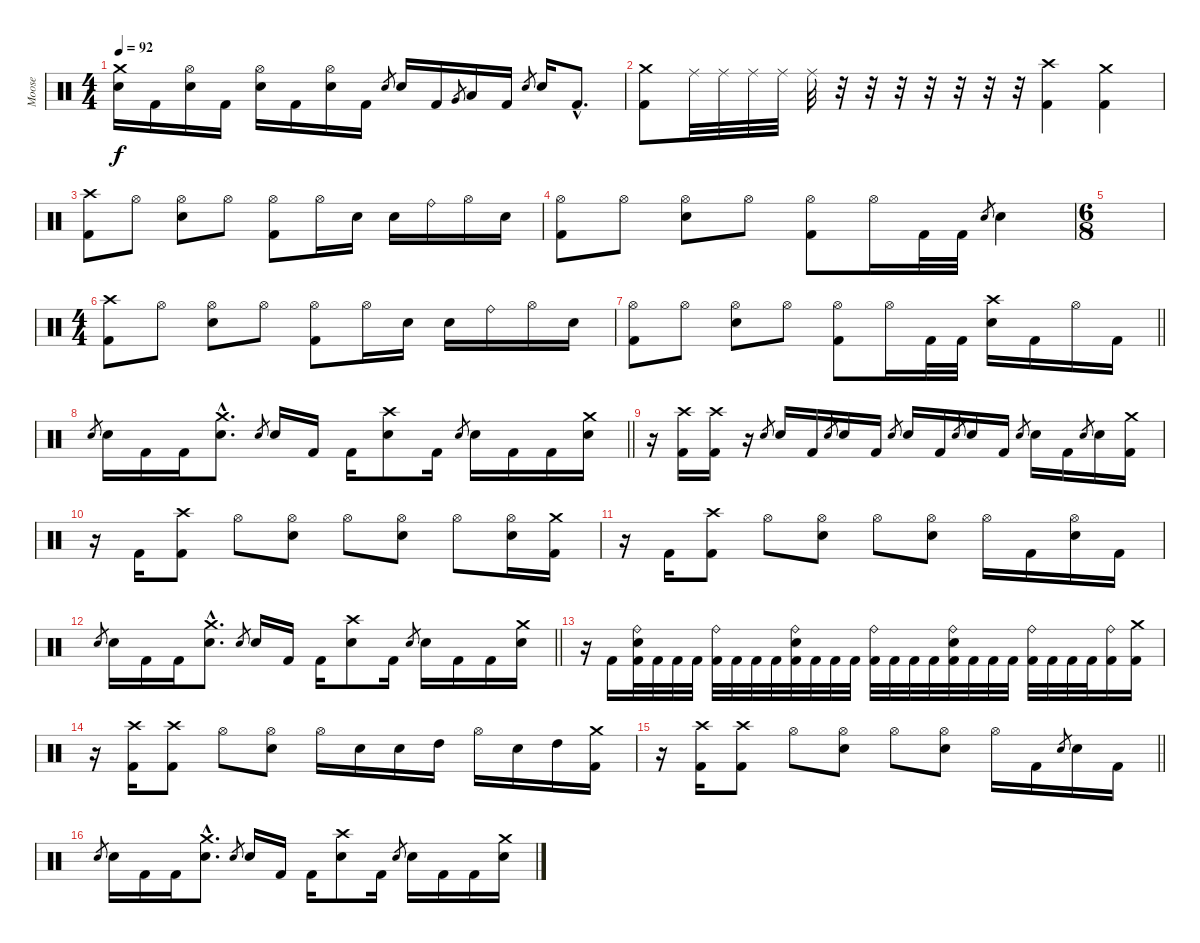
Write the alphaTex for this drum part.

\track ("Moose" "Moose") {instrument percussion}
\staff {score}
\articulation defaults
\ts (4 4)
\tempo 92
\clef neutral
\ks c
("Crash medium (hit)" "Electric Snare (hit)").16{dy f} "Kick (hit) 2".16 ("Hi-Hat (open)" "Electric Snare (hit)").16 "Kick (hit) 2".16 ("Hi-Hat (open)" "Electric Snare (hit)").16 "Kick (hit) 2".16 ("Hi-Hat (open)" "Electric Snare (hit)").16 "Kick (hit) 2".16 "Electric Snare (hit)".8{gr} "Electric Snare (hit)".16 "Kick (hit) 2".16 "Very Low Tom (hit)".8{gr} "Low Floor Tom (hit)".16 "Kick (hit) 2".16 "Electric Snare (hit)".8{gr} "Electric Snare (hit)".16 "Kick (hit) 2"{hac}.8{d} |
("Crash medium (hit)" "Kick (hit) 2").8 "Ride (middle)".32 "Ride (middle)".32 "Ride (middle)".32 "Ride (middle)".32 "Ride (middle)".32 r.32 r.32 r.32 r.32 r.32 r.32 r.32 ("Crash high (hit)" "Kick (hit) 2").4 ("Crash medium (hit)" "Kick (hit) 2").4 |
("Crash high (hit)" "Kick (hit) 2").8 "Hi-Hat (open)".8 ("Hi-Hat (open)" "Electric Snare (hit)").8 "Hi-Hat (open)".8 ("Hi-Hat (open)" "Kick (hit) 2").8 "Hi-Hat (open)".16 "Electric Snare (hit)".16 "Electric Snare (hit)".16 "Ride (bell)".16 "Hi-Hat (open)".16 "Electric Snare (hit)".16 |
("Hi-Hat (open)" "Kick (hit) 2").8 "Hi-Hat (open)".8 ("Hi-Hat (open)" "Electric Snare (hit)").8 "Hi-Hat (open)".8 ("Hi-Hat (open)" "Kick (hit) 2").8 "Hi-Hat (open)".16 "Kick (hit) 2".32 "Kick (hit) 2".32 "Electric Snare (hit)".8{gr} "Electric Snare (hit)".4 |
\ts (6 8)
|
\ts (4 4)
("Crash high (hit)" "Kick (hit) 2").8 "Hi-Hat (open)".8 ("Hi-Hat (open)" "Electric Snare (hit)").8 "Hi-Hat (open)".8 ("Hi-Hat (open)" "Kick (hit) 2").8 "Hi-Hat (open)".16 "Electric Snare (hit)".16 "Electric Snare (hit)".16 "Ride (bell)".16 "Hi-Hat (open)".16 "Electric Snare (hit)".16 |
\barLineRight lightlight
("Hi-Hat (open)" "Kick (hit) 2").8 "Hi-Hat (open)".8 ("Hi-Hat (open)" "Electric Snare (hit)").8 "Hi-Hat (open)".8 ("Hi-Hat (open)" "Kick (hit) 2").8 "Hi-Hat (open)".16 "Kick (hit) 2".32 "Kick (hit) 2".32 ("Crash high (hit)" "Electric Snare (hit)").16 "Kick (hit) 2".16 "Hi-Hat (open)".16 "Kick (hit) 2".16 |
\barLineRight lightlight "Electric Snare (hit)".8{gr} "Electric Snare (hit)".16 "Kick (hit) 2".16 "Kick (hit) 2".16
("Crash medium (hit)"{hac} "Electric Snare (hit)"{hac}).8{d} "Electric Snare (hit)".8{gr} "Electric Snare (hit)".16 "Kick (hit) 2".16 "Kick (hit) 2".16 ("Crash high (hit)" "Electric Snare (hit)").8 "Kick (hit) 2".16 "Electric Snare (hit)".8{gr} "Electric Snare (hit)".16 "Kick (hit) 2".16 "Kick (hit) 2".16 ("Crash medium (hit)" "Electric Snare (hit)").16 |
r.16 ("Crash high (hit)" "Kick (hit) 2").16 ("Crash high (hit)" "Kick (hit) 2").16 r.16 "Electric Snare (hit)".8{gr} "Electric Snare (hit)".16 "Kick (hit) 2".16 "Electric Snare (hit)".8{gr} "Electric Snare (hit)".16 "Kick (hit) 2".16 "Electric Snare (hit)".8{gr} "Electric Snare (hit)".16 "Kick (hit) 2".16 "Electric Snare (hit)".8{gr} "Electric Snare (hit)".16 "Kick (hit) 2".16 "Electric Snare (hit)".8{gr} "Electric Snare (hit)".16 "Kick (hit) 2".16 "Electric Snare (hit)".8{gr} "Electric Snare (hit)".16 ("Crash medium (hit)" "Kick (hit) 2").16 |
r.16 "Kick (hit) 2".16 ("Crash high (hit)" "Kick (hit) 2").8 "Hi-Hat (open)".8 ("Hi-Hat (open)" "Electric Snare (hit)").8 "Hi-Hat (open)".8 ("Hi-Hat (open)" "Electric Snare (hit)").8 "Hi-Hat (open)".8 ("Hi-Hat (open)" "Electric Snare (hit)").16 ("Crash medium (hit)" "Kick (hit) 2").16 |
r.16 "Kick (hit) 2".16 ("Crash high (hit)" "Kick (hit) 2").8 "Hi-Hat (open)".8 ("Hi-Hat (open)" "Electric Snare (hit)").8 "Hi-Hat (open)".8 ("Hi-Hat (open)" "Electric Snare (hit)").8 "Hi-Hat (open)".16 "Kick (hit) 2".16 ("Hi-Hat (open)" "Electric Snare (hit)").16 "Kick (hit) 2".16 |
\barLineRight lightlight "Electric Snare (hit)".8{gr} "Electric Snare (hit)".16 "Kick (hit) 2".16 "Kick (hit) 2".16
("Crash medium (hit)"{hac} "Electric Snare (hit)"{hac}).8{d} "Electric Snare (hit)".8{gr} "Electric Snare (hit)".16 "Kick (hit) 2".16 "Kick (hit) 2".16 ("Crash high (hit)" "Electric Snare (hit)").8 "Kick (hit) 2".16 "Electric Snare (hit)".8{gr} "Electric Snare (hit)".16 "Kick (hit) 2".16 "Kick (hit) 2".16 ("Crash medium (hit)" "Electric Snare (hit)").16 |
r.16 "Kick (hit) 2".16 ("Ride (bell)" "Electric Snare (hit)" "Kick (hit) 2").32 "Kick (hit) 2".32 "Kick (hit) 2".32 "Kick (hit) 2".32 ("Ride (bell)" "Kick (hit) 2").32 "Kick (hit) 2".32 "Kick (hit) 2".32 "Kick (hit) 2".32 ("Ride (bell)" "Electric Snare (hit)" "Kick (hit) 2").32 "Kick (hit) 2".32 "Kick (hit) 2".32 "Kick (hit) 2".32 ("Ride (bell)" "Kick (hit) 2").32 "Kick (hit) 2".32 "Kick (hit) 2".32 "Kick (hit) 2".32 ("Ride (bell)" "Electric Snare (hit)" "Kick (hit) 2").32 "Kick (hit) 2".32 "Kick (hit) 2".32 "Kick (hit) 2".32 ("Ride (bell)" "Kick (hit) 2").32 "Kick (hit) 2".32 "Kick (hit) 2".32 "Kick (hit) 2".32 ("Ride (bell)" "Kick (hit) 2").16 ("Crash medium (hit)" "Kick (hit) 2").16 |
r.16 ("Crash high (hit)" "Kick (hit) 2").16 ("Crash high (hit)" "Kick (hit) 2").8 "Hi-Hat (open)".8 ("Hi-Hat (open)" "Electric Snare (hit)").8 "Hi-Hat (open)".16 "Electric Snare (hit)".16 "Electric Snare (hit)".16 "High Tom (hit)".16 "Hi-Hat (open)".16 "Electric Snare (hit)".16 "High Tom (hit)".16 ("Crash medium (hit)" "Kick (hit) 2").16 |
\barLineRight lightlight
r.16 ("Crash high (hit)" "Kick (hit) 2").16 ("Crash high (hit)" "Kick (hit) 2").8 "Hi-Hat (open)".8 ("Hi-Hat (open)" "Electric Snare (hit)").8 "Hi-Hat (open)".8 ("Hi-Hat (open)" "Electric Snare (hit)").8 "Hi-Hat (open)".16 "Kick (hit) 2".16 "Electric Snare (hit)".8{gr} "Electric Snare (hit)".16 "Kick (hit) 2".16 |
"Electric Snare (hit)".8{gr} "Electric Snare (hit)".16 "Kick (hit) 2".16 "Kick (hit) 2".16 ("Crash medium (hit)"{hac} "Electric Snare (hit)"{hac}).8{d} "Electric Snare (hit)".8{gr} "Electric Snare (hit)".16 "Kick (hit) 2".16 "Kick (hit) 2".16 ("Crash high (hit)" "Electric Snare (hit)").8 "Kick (hit) 2".16 "Electric Snare (hit)".8{gr} "Electric Snare (hit)".16 "Kick (hit) 2".16 "Kick (hit) 2".16 ("Crash medium (hit)" "Electric Snare (hit)").16
